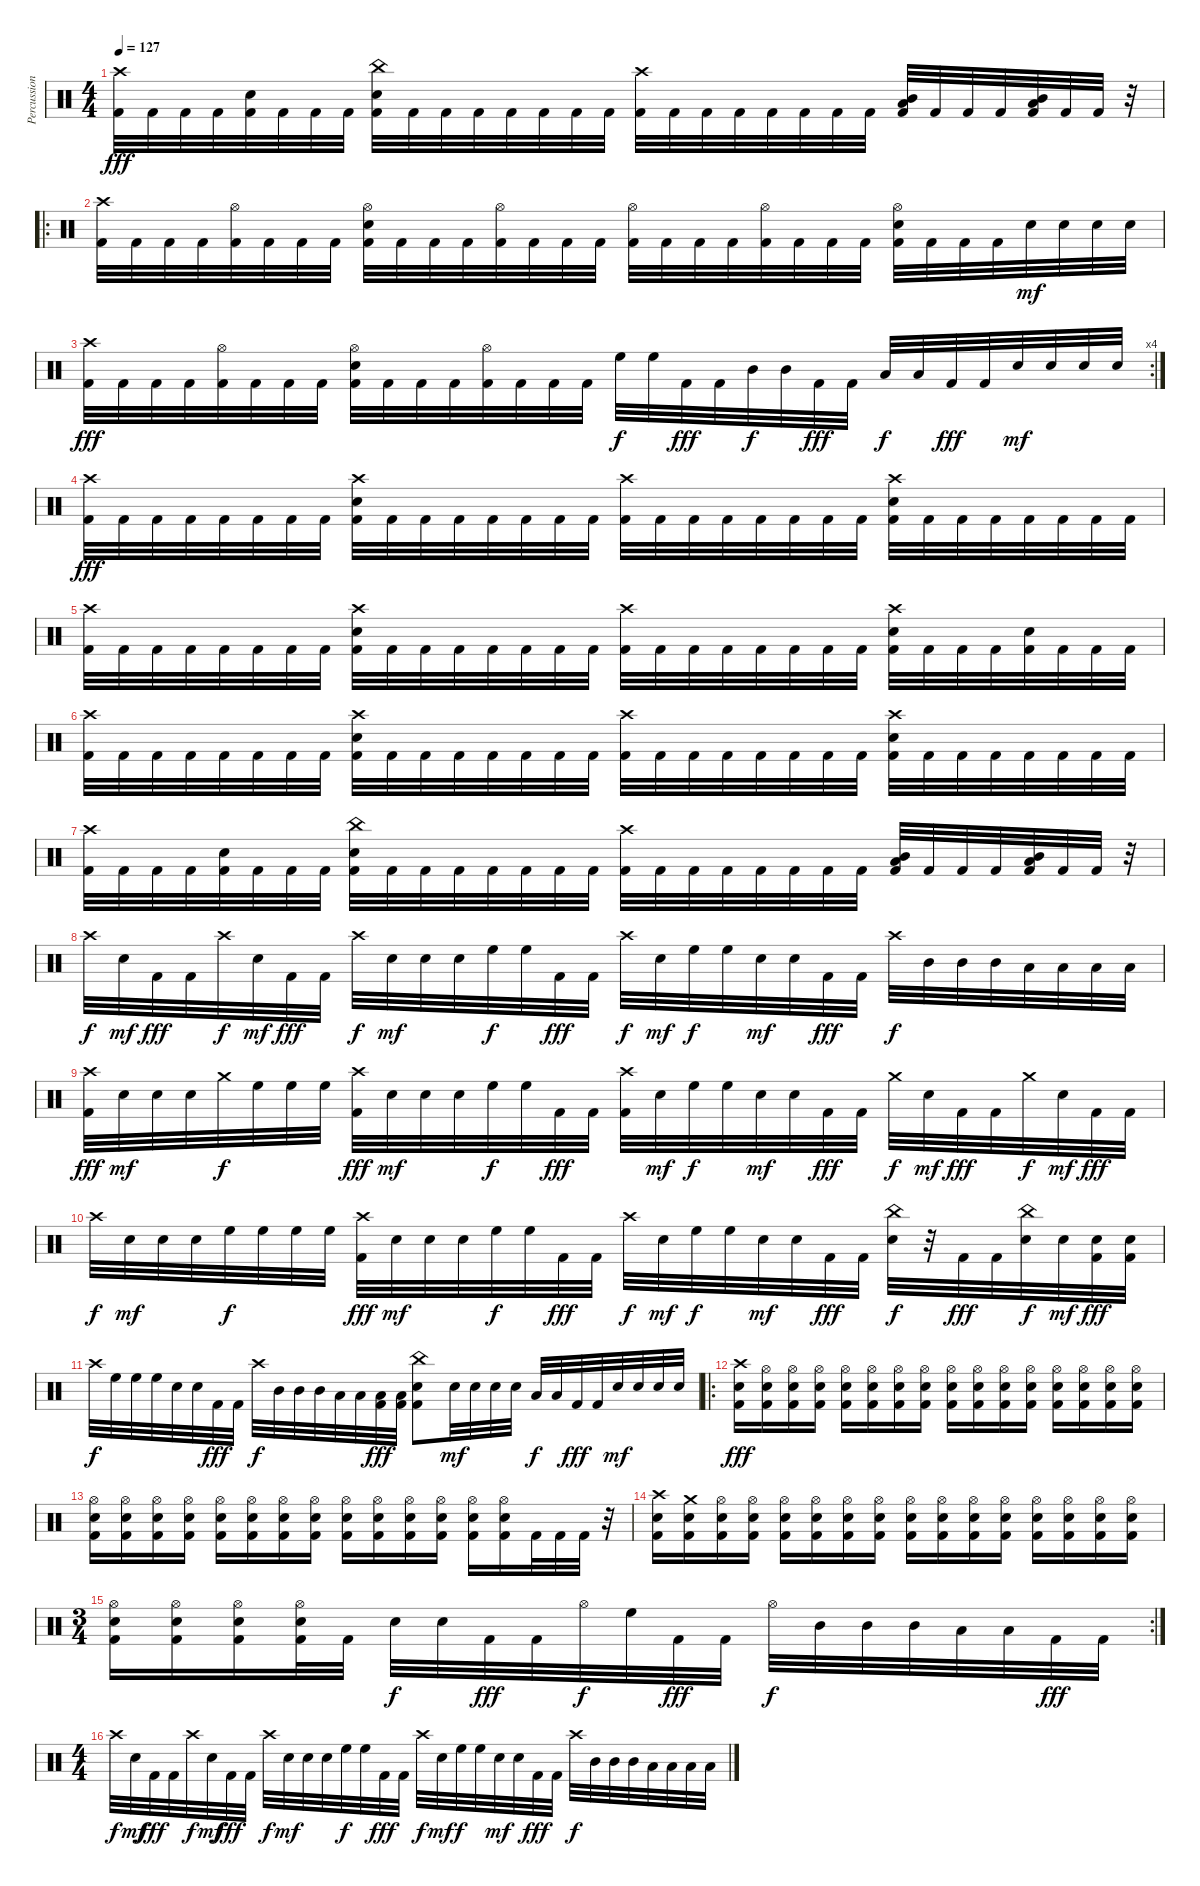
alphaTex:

\track ("Percussion" "Percussion") {instrument percussion}
\staff {score}
\articulation defaults
\ts (4 4)
\tempo 127
\clef neutral
\ks c
("Crash high (hit)" "Kick (hit) 2").32{dy fff} "Kick (hit) 2".32 "Kick (hit) 2".32 "Kick (hit) 2".32 ("Electric Snare (hit)" "Kick (hit) 2").32 "Kick (hit) 2".32 "Kick (hit) 2".32 "Kick (hit) 2".32 ("China (hit)" "Electric Snare (hit)" "Kick (hit) 2").32 "Kick (hit) 2".32 "Kick (hit) 2".32 "Kick (hit) 2".32 "Kick (hit) 2".32 "Kick (hit) 2".32 "Kick (hit) 2".32 "Kick (hit) 2".32 ("Crash high (hit)" "Kick (hit) 2").32 "Kick (hit) 2".32 "Kick (hit) 2".32 "Kick (hit) 2".32 "Kick (hit) 2".32 "Kick (hit) 2".32 "Kick (hit) 2".32 "Kick (hit) 2".32 ("Low Tom (hit)" "Mid Tom (hit)" "Kick (hit) 2").32 "Kick (hit) 2".32 "Kick (hit) 2".32 "Kick (hit) 2".32 ("Low Tom (hit)" "Mid Tom (hit)" "Kick (hit) 2").32 "Kick (hit) 2".32 "Kick (hit) 2".32 r.32 |
\ro
("Crash high (hit)" "Kick (hit) 2").32 "Kick (hit) 2".32 "Kick (hit) 2".32 "Kick (hit) 2".32 ("Hi-Hat (open)" "Kick (hit) 2").32 "Kick (hit) 2".32 "Kick (hit) 2".32 "Kick (hit) 2".32 ("Hi-Hat (open)" "Electric Snare (hit)" "Kick (hit) 2").32 "Kick (hit) 2".32 "Kick (hit) 2".32 "Kick (hit) 2".32 ("Hi-Hat (open)" "Kick (hit) 2").32 "Kick (hit) 2".32 "Kick (hit) 2".32 "Kick (hit) 2".32 ("Hi-Hat (open)" "Kick (hit) 2").32 "Kick (hit) 2".32 "Kick (hit) 2".32 "Kick (hit) 2".32 ("Hi-Hat (open)" "Kick (hit) 2").32 "Kick (hit) 2".32 "Kick (hit) 2".32 "Kick (hit) 2".32 ("Hi-Hat (open)" "Electric Snare (hit)" "Kick (hit) 2").32 "Kick (hit) 2".32 "Kick (hit) 2".32 "Kick (hit) 2".32 "Electric Snare (hit)".32{dy mf} "Electric Snare (hit)".32 "Electric Snare (hit)".32 "Electric Snare (hit)".32 |
\rc 4
("Crash high (hit)" "Kick (hit) 2").32{dy fff} "Kick (hit) 2".32 "Kick (hit) 2".32 "Kick (hit) 2".32 ("Hi-Hat (open)" "Kick (hit) 2").32 "Kick (hit) 2".32 "Kick (hit) 2".32 "Kick (hit) 2".32 ("Hi-Hat (open)" "Electric Snare (hit)" "Kick (hit) 2").32 "Kick (hit) 2".32 "Kick (hit) 2".32 "Kick (hit) 2".32 ("Hi-Hat (open)" "Kick (hit) 2").32 "Kick (hit) 2".32 "Kick (hit) 2".32 "Kick (hit) 2".32 "High Floor Tom (hit)".32{dy f} "High Floor Tom (hit)".32 "Kick (hit) 2".32{dy fff} "Kick (hit) 2".32 "Mid Tom (hit)".32{dy f} "Mid Tom (hit)".32 "Kick (hit) 2".32{dy fff} "Kick (hit) 2".32 "Low Tom (hit)".32{dy f} "Low Tom (hit)".32 "Kick (hit) 2".32{dy fff} "Kick (hit) 2".32 "Electric Snare (hit)".32{dy mf} "Electric Snare (hit)".32 "Electric Snare (hit)".32 "Electric Snare (hit)".32 |
("Crash high (hit)" "Kick (hit) 2").32{dy fff} "Kick (hit) 2".32 "Kick (hit) 2".32 "Kick (hit) 2".32 "Kick (hit) 2".32 "Kick (hit) 2".32 "Kick (hit) 2".32 "Kick (hit) 2".32 ("Crash high (hit)" "Electric Snare (hit)" "Kick (hit) 2").32 "Kick (hit) 2".32 "Kick (hit) 2".32 "Kick (hit) 2".32 "Kick (hit) 2".32 "Kick (hit) 2".32 "Kick (hit) 2".32 "Kick (hit) 2".32 ("Crash high (hit)" "Kick (hit) 2").32 "Kick (hit) 2".32 "Kick (hit) 2".32 "Kick (hit) 2".32 "Kick (hit) 2".32 "Kick (hit) 2".32 "Kick (hit) 2".32 "Kick (hit) 2".32 ("Crash high (hit)" "Electric Snare (hit)" "Kick (hit) 2").32 "Kick (hit) 2".32 "Kick (hit) 2".32 "Kick (hit) 2".32 "Kick (hit) 2".32 "Kick (hit) 2".32 "Kick (hit) 2".32 "Kick (hit) 2".32 |
("Crash high (hit)" "Kick (hit) 2").32 "Kick (hit) 2".32 "Kick (hit) 2".32 "Kick (hit) 2".32 "Kick (hit) 2".32 "Kick (hit) 2".32 "Kick (hit) 2".32 "Kick (hit) 2".32 ("Crash high (hit)" "Electric Snare (hit)" "Kick (hit) 2").32 "Kick (hit) 2".32 "Kick (hit) 2".32 "Kick (hit) 2".32 "Kick (hit) 2".32 "Kick (hit) 2".32 "Kick (hit) 2".32 "Kick (hit) 2".32 ("Crash high (hit)" "Kick (hit) 2").32 "Kick (hit) 2".32 "Kick (hit) 2".32 "Kick (hit) 2".32 "Kick (hit) 2".32 "Kick (hit) 2".32 "Kick (hit) 2".32 "Kick (hit) 2".32 ("Crash high (hit)" "Electric Snare (hit)" "Kick (hit) 2").32 "Kick (hit) 2".32 "Kick (hit) 2".32 "Kick (hit) 2".32 ("Electric Snare (hit)" "Kick (hit) 2").32 "Kick (hit) 2".32 "Kick (hit) 2".32 "Kick (hit) 2".32 |
("Crash high (hit)" "Kick (hit) 2").32 "Kick (hit) 2".32 "Kick (hit) 2".32 "Kick (hit) 2".32 "Kick (hit) 2".32 "Kick (hit) 2".32 "Kick (hit) 2".32 "Kick (hit) 2".32 ("Crash high (hit)" "Electric Snare (hit)" "Kick (hit) 2").32 "Kick (hit) 2".32 "Kick (hit) 2".32 "Kick (hit) 2".32 "Kick (hit) 2".32 "Kick (hit) 2".32 "Kick (hit) 2".32 "Kick (hit) 2".32 ("Crash high (hit)" "Kick (hit) 2").32 "Kick (hit) 2".32 "Kick (hit) 2".32 "Kick (hit) 2".32 "Kick (hit) 2".32 "Kick (hit) 2".32 "Kick (hit) 2".32 "Kick (hit) 2".32 ("Crash high (hit)" "Electric Snare (hit)" "Kick (hit) 2").32 "Kick (hit) 2".32 "Kick (hit) 2".32 "Kick (hit) 2".32 "Kick (hit) 2".32 "Kick (hit) 2".32 "Kick (hit) 2".32 "Kick (hit) 2".32 |
("Crash high (hit)" "Kick (hit) 2").32 "Kick (hit) 2".32 "Kick (hit) 2".32 "Kick (hit) 2".32 ("Electric Snare (hit)" "Kick (hit) 2").32 "Kick (hit) 2".32 "Kick (hit) 2".32 "Kick (hit) 2".32 ("China (hit)" "Electric Snare (hit)" "Kick (hit) 2").32 "Kick (hit) 2".32 "Kick (hit) 2".32 "Kick (hit) 2".32 "Kick (hit) 2".32 "Kick (hit) 2".32 "Kick (hit) 2".32 "Kick (hit) 2".32 ("Crash high (hit)" "Kick (hit) 2").32 "Kick (hit) 2".32 "Kick (hit) 2".32 "Kick (hit) 2".32 "Kick (hit) 2".32 "Kick (hit) 2".32 "Kick (hit) 2".32 "Kick (hit) 2".32 ("Low Tom (hit)" "Mid Tom (hit)" "Kick (hit) 2").32 "Kick (hit) 2".32 "Kick (hit) 2".32 "Kick (hit) 2".32 ("Low Tom (hit)" "Mid Tom (hit)" "Kick (hit) 2").32 "Kick (hit) 2".32 "Kick (hit) 2".32 r.32 |
"Crash high (hit)".32{dy f} "Electric Snare (hit)".32{dy mf} "Kick (hit) 2".32{dy fff} "Kick (hit) 2".32 "Crash high (hit)".32{dy f} "Electric Snare (hit)".32{dy mf} "Kick (hit) 2".32{dy fff} "Kick (hit) 2".32 "Crash high (hit)".32{dy f} "Electric Snare (hit)".32{dy mf} "Electric Snare (hit)".32 "Electric Snare (hit)".32 "High Floor Tom (hit)".32{dy f} "High Floor Tom (hit)".32 "Kick (hit) 2".32{dy fff} "Kick (hit) 2".32 "Crash high (hit)".32{dy f} "Electric Snare (hit)".32{dy mf} "High Floor Tom (hit)".32{dy f} "High Floor Tom (hit)".32 "Electric Snare (hit)".32{dy mf} "Electric Snare (hit)".32 "Kick (hit) 2".32{dy fff} "Kick (hit) 2".32 "Crash high (hit)".32{dy f} "Mid Tom (hit)".32 "Mid Tom (hit)".32 "Mid Tom (hit)".32 "Low Tom (hit)".32 "Low Tom (hit)".32 "Low Tom (hit)".32 "Low Tom (hit)".32 |
("Crash high (hit)" "Kick (hit) 2").32{dy fff} "Electric Snare (hit)".32{dy mf} "Electric Snare (hit)".32 "Electric Snare (hit)".32 "Crash medium (hit)".32{dy f} "High Floor Tom (hit)".32 "High Floor Tom (hit)".32 "High Floor Tom (hit)".32 ("Crash high (hit)" "Kick (hit) 2").32{dy fff} "Electric Snare (hit)".32{dy mf} "Electric Snare (hit)".32 "Electric Snare (hit)".32 "High Floor Tom (hit)".32{dy f} "High Floor Tom (hit)".32 "Kick (hit) 2".32{dy fff} "Kick (hit) 2".32 ("Crash high (hit)" "Kick (hit) 2").32 "Electric Snare (hit)".32{dy mf} "High Floor Tom (hit)".32{dy f} "High Floor Tom (hit)".32 "Electric Snare (hit)".32{dy mf} "Electric Snare (hit)".32 "Kick (hit) 2".32{dy fff} "Kick (hit) 2".32 "Crash medium (hit)".32{dy f} "Electric Snare (hit)".32{dy mf} "Kick (hit) 2".32{dy fff} "Kick (hit) 2".32 "Crash medium (hit)".32{dy f} "Electric Snare (hit)".32{dy mf} "Kick (hit) 2".32{dy fff} "Kick (hit) 2".32 |
"Crash high (hit)".32{dy f} "Electric Snare (hit)".32{dy mf} "Electric Snare (hit)".32 "Electric Snare (hit)".32 "High Floor Tom (hit)".32{dy f} "High Floor Tom (hit)".32 "High Floor Tom (hit)".32 "High Floor Tom (hit)".32 ("Crash high (hit)" "Kick (hit) 2").32{dy fff} "Electric Snare (hit)".32{dy mf} "Electric Snare (hit)".32 "Electric Snare (hit)".32 "High Floor Tom (hit)".32{dy f} "High Floor Tom (hit)".32 "Kick (hit) 2".32{dy fff} "Kick (hit) 2".32 "Crash high (hit)".32{dy f} "Electric Snare (hit)".32{dy mf} "High Floor Tom (hit)".32{dy f} "High Floor Tom (hit)".32 "Electric Snare (hit)".32{dy mf} "Electric Snare (hit)".32 "Kick (hit) 2".32{dy fff} "Kick (hit) 2".32 ("China (hit)" "Electric Snare (hit)").32{dy f} r.32 "Kick (hit) 2".32{dy fff} "Kick (hit) 2".32 ("China (hit)" "Electric Snare (hit)").32{dy f} "Electric Snare (hit)".32{dy mf} ("Electric Snare (hit)" "Kick (hit) 2").32{dy fff} ("Electric Snare (hit)" "Kick (hit) 2").32 |
"Crash high (hit)".32{dy f} "High Floor Tom (hit)".32 "High Floor Tom (hit)".32 "High Floor Tom (hit)".32 "Electric Snare (hit)".32 "Electric Snare (hit)".32 "Kick (hit) 2".32{dy fff} "Kick (hit) 2".32 "Crash high (hit)".32{dy f} "Mid Tom (hit)".32 "Mid Tom (hit)".32 "Mid Tom (hit)".32 "Low Tom (hit)".32 "Low Tom (hit)".32 ("Low Tom (hit)" "Kick (hit) 2").32{dy fff} ("Low Tom (hit)" "Kick (hit) 2").32 ("China (hit)" "Electric Snare (hit)" "Kick (hit) 2").8 "Electric Snare (hit)".32{dy mf} "Electric Snare (hit)".32 "Electric Snare (hit)".32 "Electric Snare (hit)".32 "Low Tom (hit)".32{dy f} "Low Tom (hit)".32 "Kick (hit) 2".32{dy fff} "Kick (hit) 2".32 "Electric Snare (hit)".32{dy mf} "Electric Snare (hit)".32 "Electric Snare (hit)".32 "Electric Snare (hit)".32 |
\ro
("Crash high (hit)" "Electric Snare (hit)" "Kick (hit) 2").16{dy fff} ("Hi-Hat (open)" "Electric Snare (hit)" "Kick (hit) 2").16 ("Hi-Hat (open)" "Electric Snare (hit)" "Kick (hit) 2").16 ("Hi-Hat (open)" "Electric Snare (hit)" "Kick (hit) 2").16 ("Hi-Hat (open)" "Electric Snare (hit)" "Kick (hit) 2").16 ("Hi-Hat (open)" "Electric Snare (hit)" "Kick (hit) 2").16 ("Hi-Hat (open)" "Electric Snare (hit)" "Kick (hit) 2").16 ("Hi-Hat (open)" "Electric Snare (hit)" "Kick (hit) 2").16 ("Hi-Hat (open)" "Electric Snare (hit)" "Kick (hit) 2").16 ("Hi-Hat (open)" "Electric Snare (hit)" "Kick (hit) 2").16 ("Hi-Hat (open)" "Electric Snare (hit)" "Kick (hit) 2").16 ("Hi-Hat (open)" "Electric Snare (hit)" "Kick (hit) 2").16 ("Hi-Hat (open)" "Electric Snare (hit)" "Kick (hit) 2").16 ("Hi-Hat (open)" "Electric Snare (hit)" "Kick (hit) 2").16 ("Hi-Hat (open)" "Electric Snare (hit)" "Kick (hit) 2").16 ("Hi-Hat (open)" "Electric Snare (hit)" "Kick (hit) 2").16 |
("Hi-Hat (open)" "Electric Snare (hit)" "Kick (hit) 2").16 ("Hi-Hat (open)" "Electric Snare (hit)" "Kick (hit) 2").16 ("Hi-Hat (open)" "Electric Snare (hit)" "Kick (hit) 2").16 ("Hi-Hat (open)" "Electric Snare (hit)" "Kick (hit) 2").16 ("Hi-Hat (open)" "Electric Snare (hit)" "Kick (hit) 2").16 ("Hi-Hat (open)" "Electric Snare (hit)" "Kick (hit) 2").16 ("Hi-Hat (open)" "Electric Snare (hit)" "Kick (hit) 2").16 ("Hi-Hat (open)" "Electric Snare (hit)" "Kick (hit) 2").16 ("Hi-Hat (open)" "Electric Snare (hit)" "Kick (hit) 2").16 ("Hi-Hat (open)" "Electric Snare (hit)" "Kick (hit) 2").16 ("Hi-Hat (open)" "Electric Snare (hit)" "Kick (hit) 2").16 ("Hi-Hat (open)" "Electric Snare (hit)" "Kick (hit) 2").16 ("Hi-Hat (open)" "Electric Snare (hit)" "Kick (hit) 2").16 ("Hi-Hat (open)" "Electric Snare (hit)" "Kick (hit) 2").16 "Kick (hit) 2".32 "Kick (hit) 2".32 "Kick (hit) 2".32 r.32 |
("Crash high (hit)" "Electric Snare (hit)" "Kick (hit) 2").16 ("Crash medium (hit)" "Electric Snare (hit)" "Kick (hit) 2").16 ("Hi-Hat (open)" "Electric Snare (hit)" "Kick (hit) 2").16 ("Hi-Hat (open)" "Electric Snare (hit)" "Kick (hit) 2").16 ("Hi-Hat (open)" "Electric Snare (hit)" "Kick (hit) 2").16 ("Hi-Hat (open)" "Electric Snare (hit)" "Kick (hit) 2").16 ("Hi-Hat (open)" "Electric Snare (hit)" "Kick (hit) 2").16 ("Hi-Hat (open)" "Electric Snare (hit)" "Kick (hit) 2").16 ("Hi-Hat (open)" "Electric Snare (hit)" "Kick (hit) 2").16 ("Hi-Hat (open)" "Electric Snare (hit)" "Kick (hit) 2").16 ("Hi-Hat (open)" "Electric Snare (hit)" "Kick (hit) 2").16 ("Hi-Hat (open)" "Electric Snare (hit)" "Kick (hit) 2").16 ("Hi-Hat (open)" "Electric Snare (hit)" "Kick (hit) 2").16 ("Hi-Hat (open)" "Electric Snare (hit)" "Kick (hit) 2").16 ("Hi-Hat (open)" "Electric Snare (hit)" "Kick (hit) 2").16 ("Hi-Hat (open)" "Electric Snare (hit)" "Kick (hit) 2").16 |
\rc 2
\ts (3 4)
("Hi-Hat (open)" "Electric Snare (hit)" "Kick (hit) 2").16 ("Hi-Hat (open)" "Electric Snare (hit)" "Kick (hit) 2").16 ("Hi-Hat (open)" "Electric Snare (hit)" "Kick (hit) 2").16 ("Hi-Hat (open)" "Electric Snare (hit)" "Kick (hit) 2").32 "Kick (hit) 2".32 "Electric Snare (hit)".32{dy f} "Electric Snare (hit)".32 "Kick (hit) 2".32{dy fff} "Kick (hit) 2".32 "Hi-Hat (open)".32{dy f} "High Floor Tom (hit)".32 "Kick (hit) 2".32{dy fff} "Kick (hit) 2".32 "Hi-Hat (open)".32{dy f} "Mid Tom (hit)".32 "Mid Tom (hit)".32 "Mid Tom (hit)".32 "Low Tom (hit)".32 "Low Tom (hit)".32 "Kick (hit) 2".32{dy fff} "Kick (hit) 2".32 |
\ts (4 4)
"Crash high (hit)".32{dy f} "Electric Snare (hit)".32{dy mf} "Kick (hit) 2".32{dy fff} "Kick (hit) 2".32 "Crash high (hit)".32{dy f} "Electric Snare (hit)".32{dy mf} "Kick (hit) 2".32{dy fff} "Kick (hit) 2".32 "Crash high (hit)".32{dy f} "Electric Snare (hit)".32{dy mf} "Electric Snare (hit)".32 "Electric Snare (hit)".32 "High Floor Tom (hit)".32{dy f} "High Floor Tom (hit)".32 "Kick (hit) 2".32{dy fff} "Kick (hit) 2".32 "Crash high (hit)".32{dy f} "Electric Snare (hit)".32{dy mf} "High Floor Tom (hit)".32{dy f} "High Floor Tom (hit)".32 "Electric Snare (hit)".32{dy mf} "Electric Snare (hit)".32 "Kick (hit) 2".32{dy fff} "Kick (hit) 2".32 "Crash high (hit)".32{dy f} "Mid Tom (hit)".32 "Mid Tom (hit)".32 "Mid Tom (hit)".32 "Low Tom (hit)".32 "Low Tom (hit)".32 "Low Tom (hit)".32 "Low Tom (hit)".32
